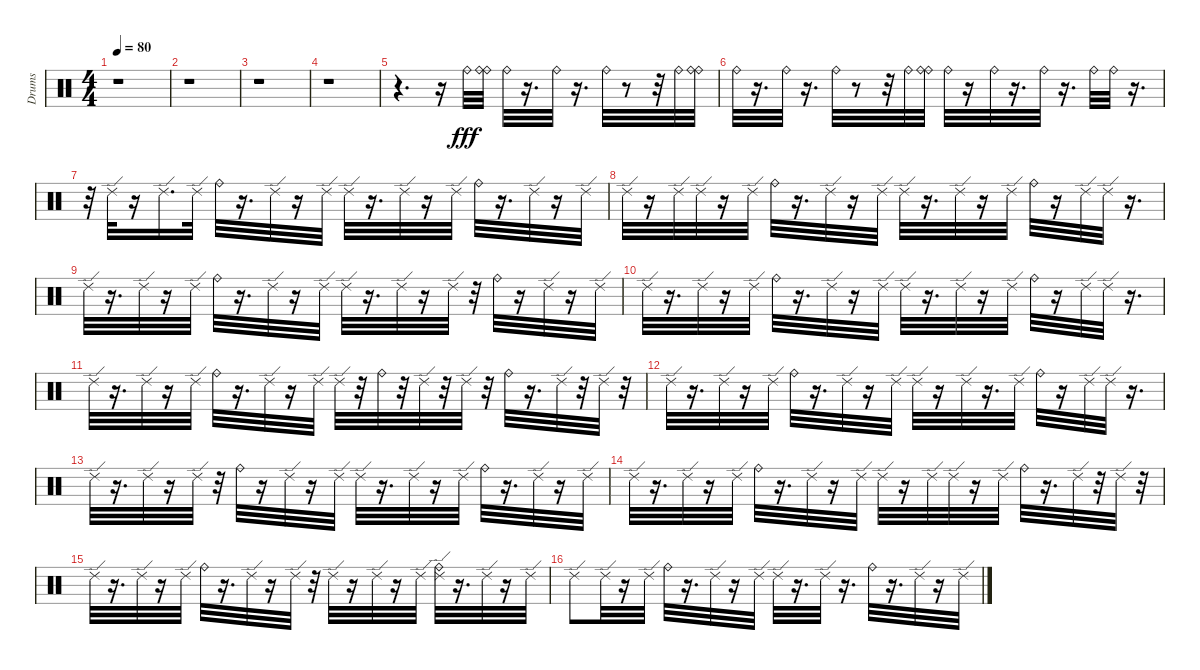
\track ("Drums   " "Drums   ") {instrument percussion}
\staff {score}
\articulation defaults
\ts (4 4)
\tempo 80
\clef neutral
\ks c
r.1{dy fff} |
r.1 |
r.1 |
r.1 |
r.4{d} r.16 "Ride (bell)".32 ("Ride (bell)" "Ride (bell)").32 "Ride (bell)".32 r.16{d} "Ride (bell)".32 r.16{d} "Ride (bell)".32 r.8 r.32 "Ride (bell)".32 ("Ride (bell)" "Ride (bell)").32 |
"Ride (bell)".32 r.16{d} "Ride (bell)".32 r.16{d} "Ride (bell)".32 r.8 r.32 "Ride (bell)".32 ("Ride (bell)" "Ride (bell)").32 "Ride (bell)".32 r.16 "Ride (bell)".32 r.16{d} "Ride (bell)".32 r.16{d} "Ride (bell)".32 "Ride (bell)".32 r.16{d} |
r.32 "Ride (edge) 2".32 r.16 "Ride (edge) 2".16{d} "Ride (edge) 2".32 "Ride (bell)".32 r.16{d} "Ride (edge) 2".32 r.16 "Ride (edge) 2".32 "Ride (edge) 2".32 r.16{d} "Ride (edge) 2".32 r.16 "Ride (edge) 2".32 "Ride (bell)".32 r.16{d} "Ride (edge) 2".32 r.16 "Ride (edge) 2".32 |
"Ride (edge) 2".32 r.16 "Ride (edge) 2".32 "Ride (edge) 2".32 r.16 "Ride (edge) 2".32 "Ride (bell)".32 r.16{d} "Ride (edge) 2".32 r.16 "Ride (edge) 2".32 "Ride (edge) 2".32 r.16{d} "Ride (edge) 2".32 r.16 "Ride (edge) 2".32 "Ride (bell)".32 r.16 "Ride (edge) 2".32 "Ride (edge) 2".32 r.16{d} |
"Ride (edge) 2".32 r.16{d} "Ride (edge) 2".32 r.16 "Ride (edge) 2".32 "Ride (bell)".32 r.16{d} "Ride (edge) 2".32 r.16 "Ride (edge) 2".32 "Ride (edge) 2".32 r.16{d} "Ride (edge) 2".32 r.16 "Ride (edge) 2".32 r.32 "Ride (bell)".32 r.16 "Ride (edge) 2".32 r.16 "Ride (edge) 2".32 |
"Ride (edge) 2".32 r.16{d} "Ride (edge) 2".32 r.16 "Ride (edge) 2".32 "Ride (bell)".32 r.16{d} "Ride (edge) 2".32 r.16 "Ride (edge) 2".32 "Ride (edge) 2".32 r.16{d} "Ride (edge) 2".32 r.16 "Ride (edge) 2".32 "Ride (bell)".32 r.16 "Ride (edge) 2".32 "Ride (edge) 2".32 r.16{d} |
"Ride (edge) 2".32 r.16{d} "Ride (edge) 2".32 r.16 "Ride (edge) 2".32 "Ride (bell)".32 r.16{d} "Ride (edge) 2".32 r.16 "Ride (edge) 2".32 "Ride (edge) 2".32 r.32 "Ride (bell)".32 r.32 "Ride (edge) 2".32 r.32 "Ride (edge) 2".32 r.32 "Ride (bell)".32 r.16{d} "Ride (edge) 2".32 r.32 "Ride (edge) 2".32 r.32 |
"Ride (edge) 2".32 r.16{d} "Ride (edge) 2".32 r.16 "Ride (edge) 2".32 "Ride (bell)".32 r.16{d} "Ride (edge) 2".32 r.16 "Ride (edge) 2".32 "Ride (edge) 2".32 r.16 "Ride (edge) 2".32 r.16{d} "Ride (edge) 2".32 "Ride (bell)".32 r.16 "Ride (edge) 2".32 "Ride (edge) 2".32 r.16{d} |
"Ride (edge) 2".32 r.16{d} "Ride (edge) 2".32 r.16 "Ride (edge) 2".32 r.32 "Ride (bell)".32 r.16 "Ride (edge) 2".32 r.16 "Ride (edge) 2".32 "Ride (edge) 2".32 r.16{d} "Ride (edge) 2".32 r.16 "Ride (edge) 2".32 "Ride (bell)".32 r.16{d} "Ride (edge) 2".32 r.16 "Ride (edge) 2".32 |
"Ride (edge) 2".32 r.16{d} "Ride (edge) 2".32 r.16 "Ride (edge) 2".32 "Ride (bell)".32 r.16{d} "Ride (edge) 2".32 r.16 "Ride (edge) 2".32 "Ride (edge) 2".32 r.16 "Ride (edge) 2".32 "Ride (edge) 2".32 r.16 "Ride (edge) 2".32 "Ride (bell)".32 r.16{d} "Ride (edge) 2".32 r.32 "Ride (edge) 2".32 r.32 |
"Ride (edge) 2".32 r.16{d} "Ride (edge) 2".32 r.16 "Ride (edge) 2".32 "Ride (bell)".32 r.16{d} "Ride (edge) 2".32 r.16 "Ride (edge) 2".32 r.32 "Ride (edge) 2".32 r.16 "Ride (edge) 2".32 r.16 "Ride (edge) 2".32 ("Ride (bell)" "Ride (edge) 2").32 r.16{d} "Ride (edge) 2".32 r.16 "Ride (edge) 2".32 |
"Ride (edge) 2".8 "Ride (edge) 2".32 r.16 "Ride (edge) 2".32 "Ride (bell)".32 r.16{d} "Ride (edge) 2".32 r.16 "Ride (edge) 2".32 "Ride (edge) 2".32 r.16{d} "Ride (edge) 2".32 r.16{d} "Ride (bell)".32 r.16{d} "Ride (edge) 2".32 r.16 "Ride (edge) 2".32
